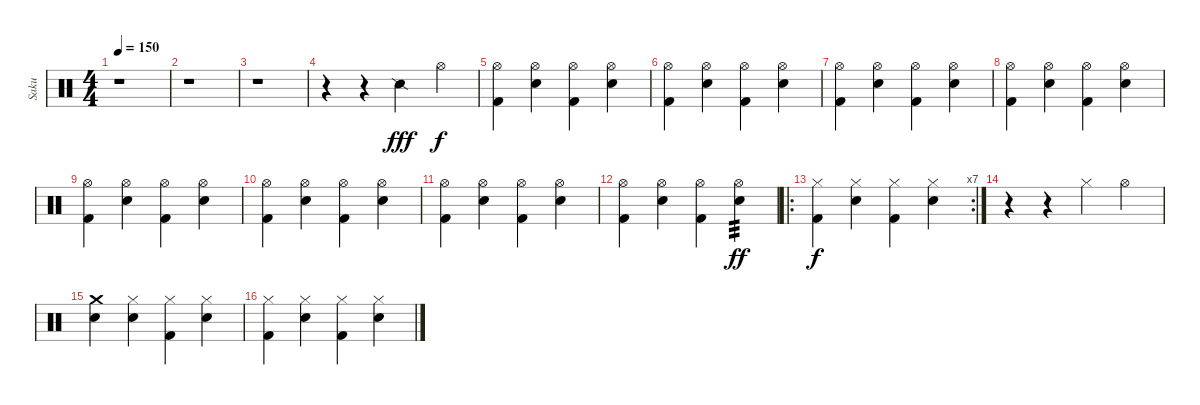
\track ("Saku" "Saku") {instrument percussion}
\staff {score}
\articulation defaults
\ts (4 4)
\tempo 150
\clef neutral
\ks c
r.1{dy fff} |
r.1 |
r.1 |
r.4 r.4 "Snare (side stick) 2".4 "Hi-Hat (open)".4{dy f} |
("Hi-Hat (open)" "Kick (hit) 2").4 ("Hi-Hat (open)" "Electric Snare (hit)").4 ("Hi-Hat (open)" "Kick (hit) 2").4 ("Hi-Hat (open)" "Electric Snare (hit)").4 |
("Hi-Hat (open)" "Kick (hit) 2").4 ("Hi-Hat (open)" "Electric Snare (hit)").4 ("Hi-Hat (open)" "Kick (hit) 2").4 ("Hi-Hat (open)" "Electric Snare (hit)").4 |
("Hi-Hat (open)" "Kick (hit) 2").4 ("Hi-Hat (open)" "Electric Snare (hit)").4 ("Hi-Hat (open)" "Kick (hit) 2").4 ("Hi-Hat (open)" "Electric Snare (hit)").4 |
("Hi-Hat (open)" "Kick (hit) 2").4 ("Hi-Hat (open)" "Electric Snare (hit)").4 ("Hi-Hat (open)" "Kick (hit) 2").4 ("Hi-Hat (open)" "Electric Snare (hit)").4 |
("Hi-Hat (open)" "Kick (hit) 2").4 ("Hi-Hat (open)" "Electric Snare (hit)").4 ("Hi-Hat (open)" "Kick (hit) 2").4 ("Hi-Hat (open)" "Electric Snare (hit)").4 |
("Hi-Hat (open)" "Kick (hit) 2").4 ("Hi-Hat (open)" "Electric Snare (hit)").4 ("Hi-Hat (open)" "Kick (hit) 2").4 ("Hi-Hat (open)" "Electric Snare (hit)").4 |
("Hi-Hat (open)" "Kick (hit) 2").4 ("Hi-Hat (open)" "Electric Snare (hit)").4 ("Hi-Hat (open)" "Kick (hit) 2").4 ("Hi-Hat (open)" "Electric Snare (hit)").4 |
("Hi-Hat (open)" "Kick (hit) 2").4 ("Hi-Hat (open)" "Electric Snare (hit)").4 ("Hi-Hat (open)" "Kick (hit) 2").4 ("Hi-Hat (open)" "Electric Snare (hit)").4{tp 3 dy ff} |
\ro
\rc 7
("Hi-Hat (closed)" "Kick (hit) 2").4{dy f} ("Hi-Hat (closed)" "Electric Snare (hit)").4 ("Hi-Hat (closed)" "Kick (hit) 2").4 ("Hi-Hat (closed)" "Electric Snare (hit)").4 |
r.4 r.4 "Hi-Hat (closed)".4 "Hi-Hat (open)".4 |
("Crash medium (hit)" "Electric Snare (hit)").4 ("Hi-Hat (closed)" "Electric Snare (hit)").4 ("Hi-Hat (closed)" "Kick (hit) 2").4 ("Hi-Hat (closed)" "Electric Snare (hit)").4 |
("Hi-Hat (closed)" "Kick (hit) 2").4 ("Hi-Hat (closed)" "Electric Snare (hit)").4 ("Hi-Hat (closed)" "Kick (hit) 2").4 ("Hi-Hat (closed)" "Electric Snare (hit)").4
